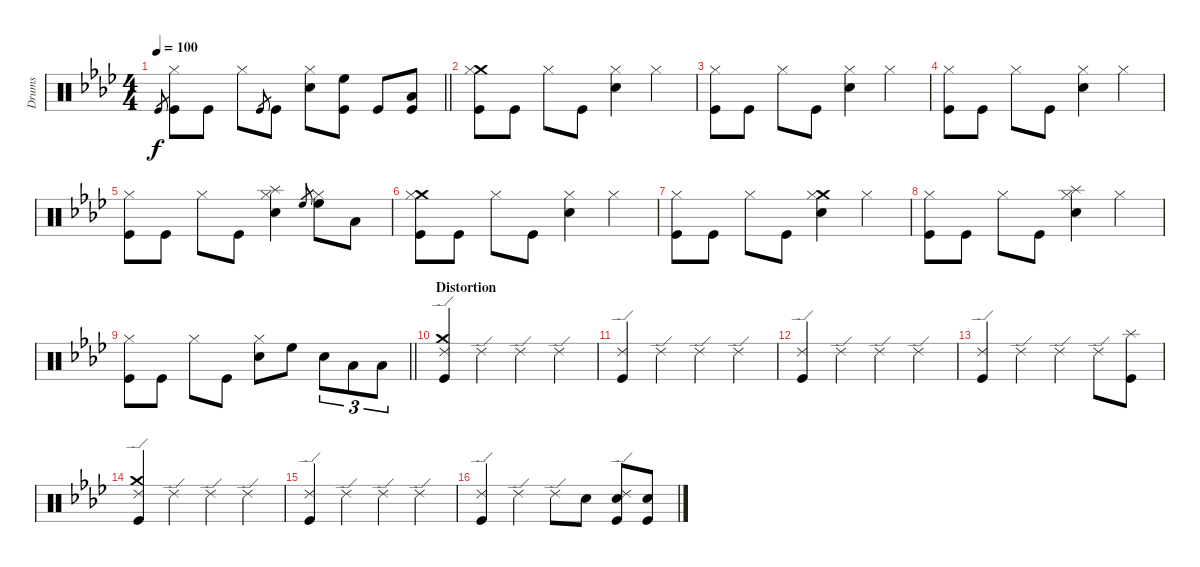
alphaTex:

\track ("Drums" "Drums") {instrument percussion}
\staff {score}
\articulation defaults
\ts (4 4)
\tempo 100
\clef neutral
\barLineRight lightlight
\ks ab "Kick (hit)".8{gr dy f}
("Hi-Hat (closed)" "Kick (hit)").8 "Kick (hit)".8 "Hi-Hat (closed)".8 "Kick (hit)".8{gr} "Kick (hit)".8 ("Hi-Hat (closed)" "Electric Snare (hit)").8 ("High Floor Tom (hit)" "Kick (hit)").8 "Kick (hit)".8 ("Low Floor Tom (hit)" "Kick (hit)").8 |
("Crash medium (hit)" "Hi-Hat (closed)" "Kick (hit)").8 "Kick (hit)".8 "Hi-Hat (closed)".8 "Kick (hit)".8 ("Hi-Hat (closed)" "Electric Snare (hit)").4 "Hi-Hat (closed)".4 |
("Hi-Hat (closed)" "Kick (hit)").8 "Kick (hit)".8 "Hi-Hat (closed)".8 "Kick (hit)".8 ("Hi-Hat (closed)" "Electric Snare (hit)").4 "Hi-Hat (closed)".4 |
("Hi-Hat (closed)" "Kick (hit)").8 "Kick (hit)".8 "Hi-Hat (closed)".8 "Kick (hit)".8 ("Hi-Hat (closed)" "Electric Snare (hit)").4 "Hi-Hat (closed)".4 |
("Hi-Hat (closed)" "Kick (hit)").8 "Kick (hit)".8 "Hi-Hat (closed)".8 "Kick (hit)".8 ("Hi-Hat (closed)" "Splash (hit)" "Electric Snare (hit)").4 "High Floor Tom (hit)".8{gr} ("Hi-Hat (closed)" "High Floor Tom (hit)").8 "Low Floor Tom (hit)".8 |
("Crash medium (hit)" "Hi-Hat (closed)" "Kick (hit)").8 "Kick (hit)".8 "Hi-Hat (closed)".8 "Kick (hit)".8 ("Hi-Hat (closed)" "Electric Snare (hit)").4 "Hi-Hat (closed)".4 |
("Hi-Hat (closed)" "Kick (hit)").8 "Kick (hit)".8 "Hi-Hat (closed)".8 "Kick (hit)".8 ("Crash medium (hit)" "Hi-Hat (closed)" "Electric Snare (hit)").4 "Hi-Hat (closed)".4 |
("Hi-Hat (closed)" "Kick (hit)").8 "Kick (hit)".8 "Hi-Hat (closed)".8 "Kick (hit)".8 ("Splash (hit)" "Hi-Hat (closed)" "Electric Snare (hit)").4 "Hi-Hat (closed)".4 |
\barLineRight lightlight
("Hi-Hat (closed)" "Kick (hit)").8 "Kick (hit)".8 "Hi-Hat (closed)".8 "Kick (hit)".8 ("Hi-Hat (closed)" "Electric Snare (hit)").8 "High Floor Tom (hit)".8 "Electric Snare (hit)".8{tu (3 2)} "Low Tom (hit)".8{tu (3 2)} "Low Floor Tom (hit)".8{tu (3 2)} |
\section ("" "Distortion")
("Ride (edge) 2" "Crash medium (hit)" "Kick (hit)").4 "Ride (edge) 2".4 "Ride (edge) 2".4 "Ride (edge) 2".4 |
("Ride (edge) 2" "Kick (hit)").4 "Ride (edge) 2".4 "Ride (edge) 2".4 "Ride (edge) 2".4 |
("Ride (edge) 2" "Kick (hit)").4 "Ride (edge) 2".4 "Ride (edge) 2".4 "Ride (edge) 2".4 |
("Ride (edge) 2" "Kick (hit)").4 "Ride (edge) 2".4 "Ride (edge) 2".4 "Ride (edge) 2".8 ("Splash (hit)" "Kick (hit)").8 |
("Ride (edge) 2" "Crash medium (hit)" "Kick (hit)").4 "Ride (edge) 2".4 "Ride (edge) 2".4 "Ride (edge) 2".4 |
("Ride (edge) 2" "Kick (hit)").4 "Ride (edge) 2".4 "Ride (edge) 2".4 "Ride (edge) 2".4 |
("Ride (edge) 2" "Kick (hit)").4 "Ride (edge) 2".4 "Ride (edge) 2".8 "Electric Snare (hit)".8 ("Ride (edge) 2" "Electric Snare (hit)" "Kick (hit)").8 ("Electric Snare (hit)" "Kick (hit)").8
